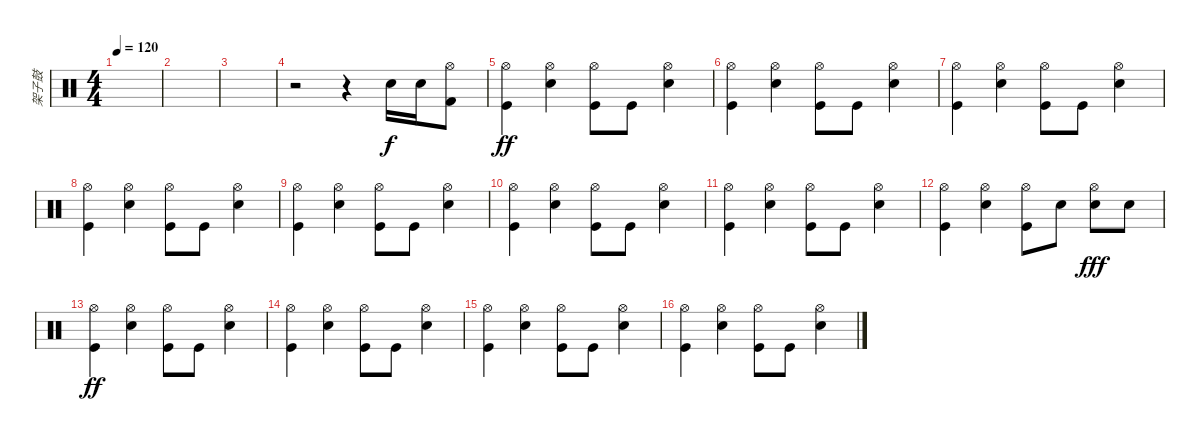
\track ("架子鼓" "架子鼓") {instrument percussion}
\staff {score}
\articulation defaults
\ts (4 4)
\tempo 120
\clef neutral
\ks c
|
|
|
r.2 r.4 "Snare (hit) 2".16 "Snare (hit) 2".16 ("Hi-Hat (open)" "Kick (hit) 2").8 |
("Hi-Hat (open)" "Kick (hit)").4{dy ff} ("Hi-Hat (open)" "Snare (hit) 2").4 ("Hi-Hat (open)" "Kick (hit)").8 "Kick (hit)".8 ("Hi-Hat (open)" "Snare (hit) 2").4 |
("Hi-Hat (open)" "Kick (hit)").4 ("Hi-Hat (open)" "Snare (hit) 2").4 ("Hi-Hat (open)" "Kick (hit)").8 "Kick (hit)".8 ("Hi-Hat (open)" "Snare (hit) 2").4 |
("Hi-Hat (open)" "Kick (hit)").4 ("Hi-Hat (open)" "Snare (hit) 2").4 ("Hi-Hat (open)" "Kick (hit)").8 "Kick (hit)".8 ("Hi-Hat (open)" "Snare (hit) 2").4 |
("Hi-Hat (open)" "Kick (hit)").4 ("Hi-Hat (open)" "Snare (hit) 2").4 ("Hi-Hat (open)" "Kick (hit)").8 "Kick (hit)".8 ("Hi-Hat (open)" "Snare (hit) 2").4 |
("Hi-Hat (open)" "Kick (hit)").4 ("Hi-Hat (open)" "Snare (hit) 2").4 ("Hi-Hat (open)" "Kick (hit)").8 "Kick (hit)".8 ("Hi-Hat (open)" "Snare (hit) 2").4 |
("Hi-Hat (open)" "Kick (hit)").4 ("Hi-Hat (open)" "Snare (hit) 2").4 ("Hi-Hat (open)" "Kick (hit)").8 "Kick (hit)".8 ("Hi-Hat (open)" "Snare (hit) 2").4 |
("Hi-Hat (open)" "Kick (hit)").4 ("Hi-Hat (open)" "Snare (hit) 2").4 ("Hi-Hat (open)" "Kick (hit)").8 "Kick (hit)".8 ("Hi-Hat (open)" "Snare (hit) 2").4 |
("Hi-Hat (open)" "Kick (hit)").4 ("Hi-Hat (open)" "Snare (hit) 2").4 ("Hi-Hat (open)" "Kick (hit)").8 "Snare (hit) 2".8 ("Hi-Hat (open)" "Snare (hit) 2").8{dy fff} "Snare (hit) 2".8 |
("Hi-Hat (open)" "Kick (hit)").4{dy ff} ("Hi-Hat (open)" "Snare (hit) 2").4 ("Hi-Hat (open)" "Kick (hit)").8 "Kick (hit)".8 ("Hi-Hat (open)" "Snare (hit) 2").4 |
("Hi-Hat (open)" "Kick (hit)").4 ("Hi-Hat (open)" "Snare (hit) 2").4 ("Hi-Hat (open)" "Kick (hit)").8 "Kick (hit)".8 ("Hi-Hat (open)" "Snare (hit) 2").4 |
("Hi-Hat (open)" "Kick (hit)").4 ("Hi-Hat (open)" "Snare (hit) 2").4 ("Hi-Hat (open)" "Kick (hit)").8 "Kick (hit)".8 ("Hi-Hat (open)" "Snare (hit) 2").4 |
("Hi-Hat (open)" "Kick (hit)").4 ("Hi-Hat (open)" "Snare (hit) 2").4 ("Hi-Hat (open)" "Kick (hit)").8 "Kick (hit)".8 ("Hi-Hat (open)" "Snare (hit) 2").4
